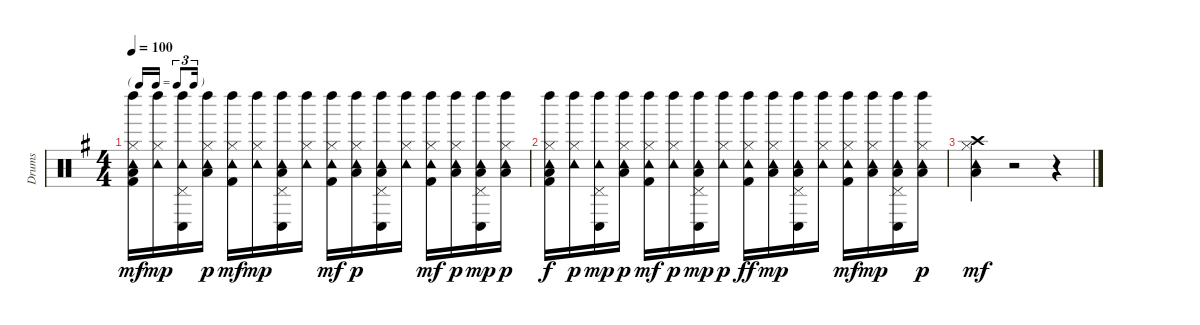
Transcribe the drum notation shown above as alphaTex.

\track ("Drums" "Drums") {instrument percussion}
\staff {score}
\articulation defaults
\ts (4 4)
\tf triplet16th
\tempo 100
\clef neutral
\ks g
("Kick (hit) 2" "Low Floor Tom (hit)" "Hi-Hat (closed)" "Tambourine (hit)" "Left Maraca (hit)").16{dy mf} ("Hi-Hat (closed)" "Tambourine (hit)" "Left Maraca (hit)").16{dy mp} ("Pedal Hi-Hat (hit)" "Tambourine (hit)" "Conga low (hit)" "Left Maraca (hit)").16 ("Low Floor Tom (hit)" "Hi-Hat (closed)" "Tambourine (hit)" "Left Maraca (hit)").16{dy p} ("Kick (hit) 2" "Hi-Hat (closed)" "Tambourine (hit)" "Left Maraca (hit)").16{dy mf} ("Hi-Hat (closed)" "Tambourine (hit)" "Left Maraca (hit)").16{dy mp} ("Low Floor Tom (hit)" "Pedal Hi-Hat (hit)" "Tambourine (hit)" "Conga low (hit)" "Left Maraca (hit)").16 ("Hi-Hat (closed)" "Tambourine (hit)" "Left Maraca (hit)").16 ("Kick (hit) 2" "Hi-Hat (closed)" "Tambourine (hit)" "Left Maraca (hit)").16{dy mf} ("Low Floor Tom (hit)" "Hi-Hat (closed)" "Tambourine (hit)" "Left Maraca (hit)").16{dy p} ("Low Floor Tom (hit)" "Pedal Hi-Hat (hit)" "Tambourine (hit)" "Conga low (hit)" "Left Maraca (hit)").16 ("Hi-Hat (closed)" "Tambourine (hit)" "Left Maraca (hit)").16 ("Kick (hit) 2" "Hi-Hat (closed)" "Tambourine (hit)" "Left Maraca (hit)").16{dy mf} ("Low Floor Tom (hit)" "Hi-Hat (closed)" "Tambourine (hit)" "Left Maraca (hit)").16{dy p} ("Low Floor Tom (hit)" "Pedal Hi-Hat (hit)" "Tambourine (hit)" "Conga low (hit)" "Left Maraca (hit)").16{dy mp} ("Low Floor Tom (hit)" "Hi-Hat (closed)" "Tambourine (hit)" "Left Maraca (hit)").16{dy p} |
("Kick (hit) 2" "Low Floor Tom (hit)" "Hi-Hat (closed)" "Tambourine (hit)" "Left Maraca (hit)").16{dy f} ("Hi-Hat (closed)" "Tambourine (hit)" "Left Maraca (hit)").16{dy p} ("Pedal Hi-Hat (hit)" "Tambourine (hit)" "Conga low (hit)" "Left Maraca (hit)").16{dy mp} ("Low Floor Tom (hit)" "Hi-Hat (closed)" "Tambourine (hit)" "Left Maraca (hit)").16{dy p} ("Kick (hit) 2" "Hi-Hat (closed)" "Tambourine (hit)" "Left Maraca (hit)").16{dy mf} ("Hi-Hat (closed)" "Tambourine (hit)" "Left Maraca (hit)").16{dy p} ("Low Floor Tom (hit)" "Pedal Hi-Hat (hit)" "Tambourine (hit)" "Conga low (hit)" "Left Maraca (hit)").16{dy mp} ("Hi-Hat (closed)" "Tambourine (hit)" "Left Maraca (hit)").16{dy p} ("Kick (hit) 2" "Hi-Hat (closed)" "Tambourine (hit)" "Left Maraca (hit)").16{dy ff} ("Low Floor Tom (hit)" "Hi-Hat (closed)" "Tambourine (hit)" "Left Maraca (hit)").16{dy mp} ("Low Floor Tom (hit)" "Pedal Hi-Hat (hit)" "Tambourine (hit)" "Conga low (hit)" "Left Maraca (hit)").16 ("Hi-Hat (closed)" "Tambourine (hit)" "Left Maraca (hit)").16 ("Kick (hit) 2" "Hi-Hat (closed)" "Tambourine (hit)" "Left Maraca (hit)").16{dy mf} ("Low Floor Tom (hit)" "Hi-Hat (closed)" "Tambourine (hit)" "Left Maraca (hit)").16{dy mp} ("Low Floor Tom (hit)" "Pedal Hi-Hat (hit)" "Tambourine (hit)" "Conga low (hit)" "Left Maraca (hit)").16 ("Low Floor Tom (hit)" "Hi-Hat (closed)" "Tambourine (hit)" "Left Maraca (hit)").16{dy p} |
("Low Floor Tom (hit)" "Hi-Hat (closed)" "Crash high (hit)" "Tambourine (hit)").4{dy mf} r.2 r.4
